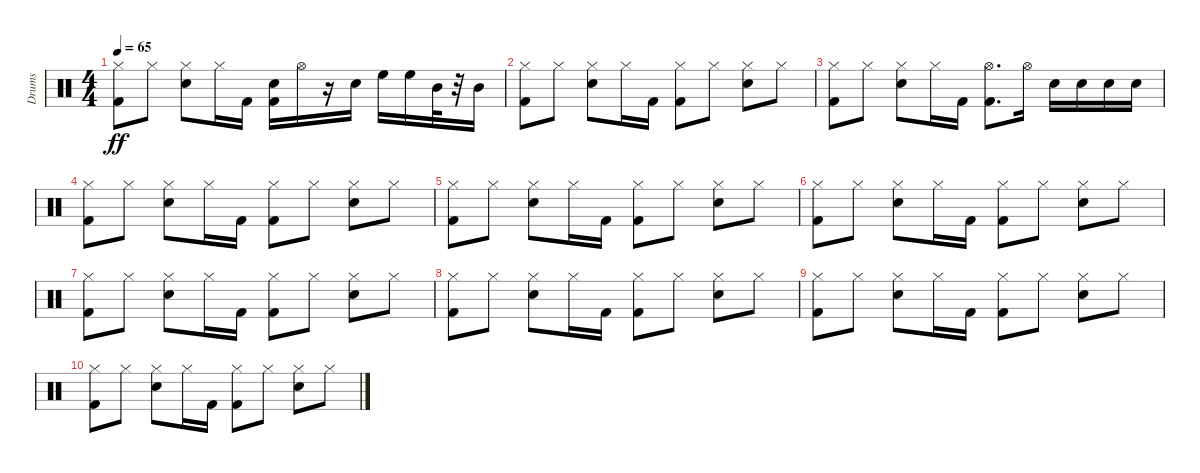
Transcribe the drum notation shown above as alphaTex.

\track ("Drums" "Drums") {instrument percussion}
\staff {score}
\articulation defaults
\ts (4 4)
\tempo 65
\clef neutral
\ks c
("Hi-Hat (closed)" "Kick (hit) 2").8{dy ff} "Hi-Hat (closed)".8 ("Snare (hit) 2" "Hi-Hat (closed)").8 "Hi-Hat (closed)".16 "Kick (hit) 2".16 ("Snare (hit) 2" "Kick (hit) 2").16 "Hi-Hat (open)".16 r.16 "Snare (hit) 2".16 "High Floor Tom (hit)".16 "High Floor Tom (hit)".16 "Mid Tom (hit)".32 r.32 "Mid Tom (hit)".16 |
("Hi-Hat (closed)" "Kick (hit) 2").8 "Hi-Hat (closed)".8 ("Snare (hit) 2" "Hi-Hat (closed)").8 "Hi-Hat (closed)".16 "Kick (hit) 2".16 ("Hi-Hat (closed)" "Kick (hit) 2").8 "Hi-Hat (closed)".8 ("Hi-Hat (closed)" "Snare (hit) 2").8 "Hi-Hat (closed)".8 |
("Hi-Hat (closed)" "Kick (hit) 2").8 "Hi-Hat (closed)".8 ("Snare (hit) 2" "Hi-Hat (closed)").8 "Hi-Hat (closed)".16 "Kick (hit) 2".16 ("Hi-Hat (open)" "Kick (hit) 2").8{d} "Hi-Hat (open)".16 "Snare (hit) 2".16 "Snare (hit) 2".16 "Snare (hit) 2".16 "Snare (hit) 2".16 |
("Hi-Hat (closed)" "Kick (hit) 2").8 "Hi-Hat (closed)".8 ("Snare (hit) 2" "Hi-Hat (closed)").8 "Hi-Hat (closed)".16 "Kick (hit) 2".16 ("Hi-Hat (closed)" "Kick (hit) 2").8 "Hi-Hat (closed)".8 ("Hi-Hat (closed)" "Snare (hit) 2").8 "Hi-Hat (closed)".8{volume 12} |
("Hi-Hat (closed)" "Kick (hit) 2").8 "Hi-Hat (closed)".8 ("Snare (hit) 2" "Hi-Hat (closed)").8 "Hi-Hat (closed)".16 "Kick (hit) 2".16 ("Hi-Hat (closed)" "Kick (hit) 2").8 "Hi-Hat (closed)".8 ("Hi-Hat (closed)" "Snare (hit) 2").8{volume 11} "Hi-Hat (closed)".8 |
("Hi-Hat (closed)" "Kick (hit) 2").8 "Hi-Hat (closed)".8 ("Snare (hit) 2" "Hi-Hat (closed)").8 "Hi-Hat (closed)".16 "Kick (hit) 2".16 ("Hi-Hat (closed)" "Kick (hit) 2").8 "Hi-Hat (closed)".8 ("Hi-Hat (closed)" "Snare (hit) 2").8{volume 10} "Hi-Hat (closed)".8 |
("Hi-Hat (closed)" "Kick (hit) 2").8 "Hi-Hat (closed)".8 ("Snare (hit) 2" "Hi-Hat (closed)").8 "Hi-Hat (closed)".16 "Kick (hit) 2".16 ("Hi-Hat (closed)" "Kick (hit) 2").8 "Hi-Hat (closed)".8{volume 9} ("Hi-Hat (closed)" "Snare (hit) 2").8 "Hi-Hat (closed)".8 |
("Hi-Hat (closed)" "Kick (hit) 2").8 "Hi-Hat (closed)".8 ("Snare (hit) 2" "Hi-Hat (closed)").8{volume 8} "Hi-Hat (closed)".16 "Kick (hit) 2".16 ("Hi-Hat (closed)" "Kick (hit) 2").8 "Hi-Hat (closed)".8 ("Hi-Hat (closed)" "Snare (hit) 2").8{volume 7} "Hi-Hat (closed)".8 |
("Hi-Hat (closed)" "Kick (hit) 2").8 "Hi-Hat (closed)".8 ("Snare (hit) 2" "Hi-Hat (closed)").8 "Hi-Hat (closed)".16 "Kick (hit) 2".16 ("Hi-Hat (closed)" "Kick (hit) 2").8 "Hi-Hat (closed)".8 ("Hi-Hat (closed)" "Snare (hit) 2").8{volume 6} "Hi-Hat (closed)".8 |
("Hi-Hat (closed)" "Kick (hit) 2").8 "Hi-Hat (closed)".8 ("Snare (hit) 2" "Hi-Hat (closed)").8 "Hi-Hat (closed)".16 "Kick (hit) 2".16 ("Hi-Hat (closed)" "Kick (hit) 2").8 "Hi-Hat (closed)".8{volume 5} ("Hi-Hat (closed)" "Snare (hit) 2").8 "Hi-Hat (closed)".8
